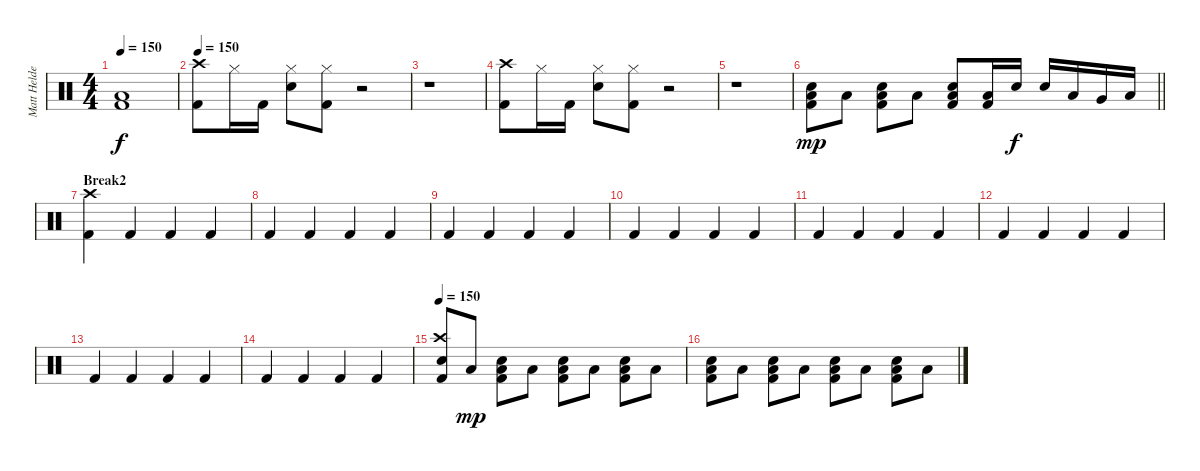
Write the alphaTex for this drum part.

\track ("Matt Helders - Drums MIDI" "Matt Helde") {instrument percussion}
\staff {score}
\articulation defaults
\ts (4 4)
\tempo 150
\clef neutral
\ks c
("Low Floor Tom (hit)" "Kick (hit) 2").1{dy f} |
\tempo 150
("Crash high (hit)" "Kick (hit) 2").8 "Hi-Hat (closed)".16 "Kick (hit) 2".16 ("Hi-Hat (closed)" "Snare (hit) 2").8 ("Hi-Hat (closed)" "Kick (hit) 2").8 r.2 |
r.1 |
("Crash high (hit)" "Kick (hit) 2").8 "Hi-Hat (closed)".16 "Kick (hit) 2".16 ("Hi-Hat (closed)" "Snare (hit) 2").8 ("Hi-Hat (closed)" "Kick (hit) 2").8 r.2 |
r.1 |
\barLineRight lightlight
("Low Floor Tom (hit)" "Snare (hit) 2" "Kick (hit) 2").8{dy mp} "Low Floor Tom (hit)".8 ("Low Floor Tom (hit)" "Snare (hit) 2" "Kick (hit) 2").8 "Low Floor Tom (hit)".8 ("Low Floor Tom (hit)" "Snare (hit) 2" "Kick (hit) 2").8 ("Low Floor Tom (hit)" "Kick (hit) 2").16 "Snare (hit) 2".16{dy f} "Snare (hit) 2".16 "Low Tom (hit)".16 "Very Low Tom (hit)".16 "Low Floor Tom (hit)".16 |
\section ("" "Break2")
("Crash high (hit)" "Kick (hit) 2").4 "Kick (hit) 2".4 "Kick (hit) 2".4 "Kick (hit) 2".4 |
"Kick (hit) 2".4 "Kick (hit) 2".4 "Kick (hit) 2".4 "Kick (hit) 2".4 |
"Kick (hit) 2".4 "Kick (hit) 2".4 "Kick (hit) 2".4 "Kick (hit) 2".4 |
"Kick (hit) 2".4 "Kick (hit) 2".4 "Kick (hit) 2".4 "Kick (hit) 2".4 |
"Kick (hit) 2".4 "Kick (hit) 2".4 "Kick (hit) 2".4 "Kick (hit) 2".4 |
"Kick (hit) 2".4 "Kick (hit) 2".4 "Kick (hit) 2".4 "Kick (hit) 2".4 |
"Kick (hit) 2".4 "Kick (hit) 2".4 "Kick (hit) 2".4 "Kick (hit) 2".4 |
"Kick (hit) 2".4 "Kick (hit) 2".4 "Kick (hit) 2".4 "Kick (hit) 2".4 |
\tempo 150
("Crash high (hit)" "Snare (hit) 2" "Kick (hit) 2").8 "Low Floor Tom (hit)".8{dy mp} ("Low Floor Tom (hit)" "Snare (hit) 2" "Kick (hit) 2").8 "Low Floor Tom (hit)".8 ("Low Floor Tom (hit)" "Snare (hit) 2" "Kick (hit) 2").8 "Low Floor Tom (hit)".8 ("Low Floor Tom (hit)" "Snare (hit) 2" "Kick (hit) 2").8 "Low Floor Tom (hit)".8 |
("Low Floor Tom (hit)" "Snare (hit) 2" "Kick (hit) 2").8 "Low Floor Tom (hit)".8 ("Low Floor Tom (hit)" "Snare (hit) 2" "Kick (hit) 2").8 "Low Floor Tom (hit)".8 ("Low Floor Tom (hit)" "Snare (hit) 2" "Kick (hit) 2").8 "Low Floor Tom (hit)".8 ("Low Floor Tom (hit)" "Snare (hit) 2" "Kick (hit) 2").8 "Low Floor Tom (hit)".8
